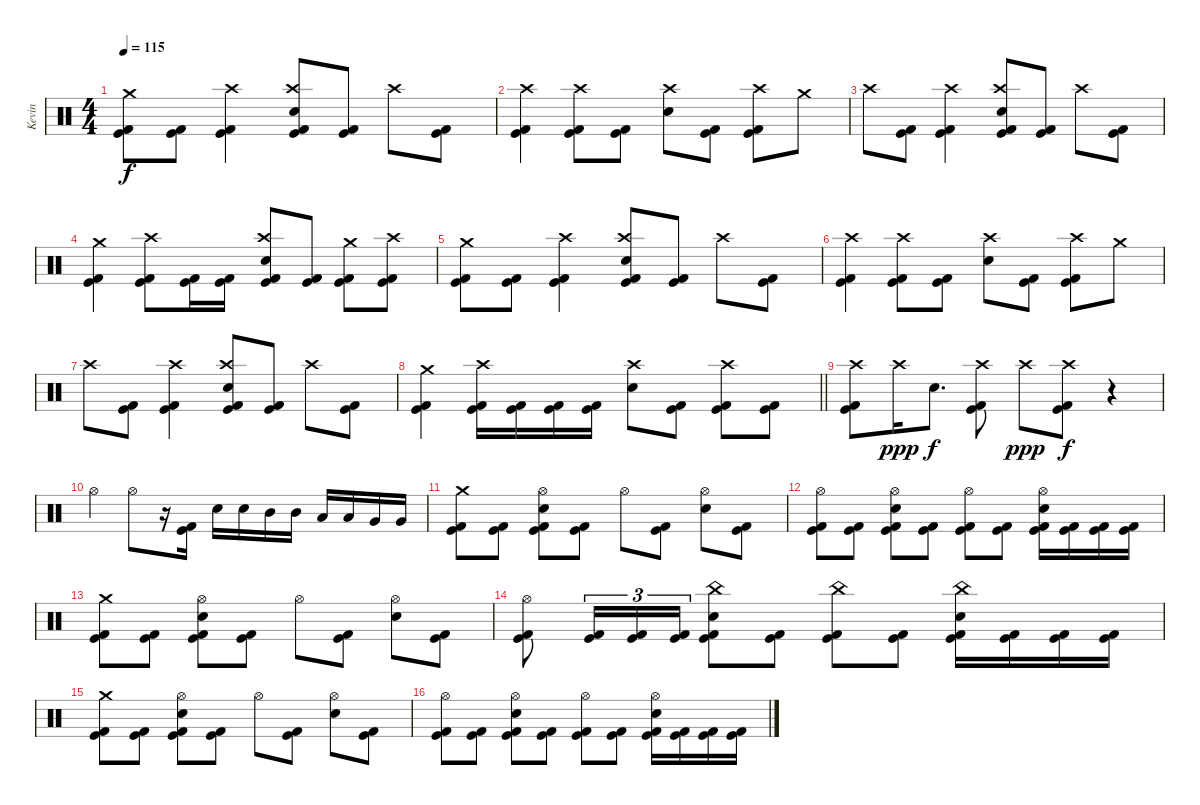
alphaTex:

\track ("Kevin" "Kevin") {instrument percussion}
\staff {score}
\articulation defaults
\ts (4 4)
\tempo 115
\clef neutral
\ks c
("Crash medium (hit)" "Kick (hit)" "Kick (hit) 2").8{dy f} ("Kick (hit)" "Kick (hit) 2").8 ("Crash high (hit)" "Kick (hit)" "Kick (hit) 2").4 ("Crash high (hit)" "Electric Snare (hit)" "Kick (hit)" "Kick (hit) 2").8 ("Kick (hit)" "Kick (hit) 2").8 "Crash high (hit)".8 ("Kick (hit)" "Kick (hit) 2").8 |
("Crash high (hit)" "Kick (hit)" "Kick (hit) 2").4 ("Crash high (hit)" "Kick (hit)" "Kick (hit) 2").8 ("Kick (hit)" "Kick (hit) 2").8 ("Crash high (hit)" "Electric Snare (hit)").8 ("Kick (hit)" "Kick (hit) 2").8 ("Crash high (hit)" "Kick (hit)" "Kick (hit) 2").8 "Crash medium (hit)".8 |
"Crash high (hit)".8 ("Kick (hit)" "Kick (hit) 2").8 ("Crash high (hit)" "Kick (hit)" "Kick (hit) 2").4 ("Crash high (hit)" "Electric Snare (hit)" "Kick (hit)" "Kick (hit) 2").8 ("Kick (hit)" "Kick (hit) 2").8 "Crash high (hit)".8 ("Kick (hit)" "Kick (hit) 2").8 |
("Crash medium (hit)" "Kick (hit)" "Kick (hit) 2").4 ("Crash high (hit)" "Kick (hit)" "Kick (hit) 2").8 ("Kick (hit)" "Kick (hit) 2").16 ("Kick (hit)" "Kick (hit) 2").16 ("Crash high (hit)" "Electric Snare (hit)" "Kick (hit)" "Kick (hit) 2").8 ("Kick (hit)" "Kick (hit) 2").8 ("Crash medium (hit)" "Kick (hit)" "Kick (hit) 2").8 ("Crash high (hit)" "Kick (hit)" "Kick (hit) 2").8 |
("Crash medium (hit)" "Kick (hit)" "Kick (hit) 2").8 ("Kick (hit)" "Kick (hit) 2").8 ("Crash high (hit)" "Kick (hit)" "Kick (hit) 2").4 ("Crash high (hit)" "Electric Snare (hit)" "Kick (hit)" "Kick (hit) 2").8 ("Kick (hit)" "Kick (hit) 2").8 "Crash high (hit)".8 ("Kick (hit)" "Kick (hit) 2").8 |
("Crash high (hit)" "Kick (hit)" "Kick (hit) 2").4 ("Crash high (hit)" "Kick (hit)" "Kick (hit) 2").8 ("Kick (hit)" "Kick (hit) 2").8 ("Crash high (hit)" "Electric Snare (hit)").8 ("Kick (hit)" "Kick (hit) 2").8 ("Crash high (hit)" "Kick (hit)" "Kick (hit) 2").8 "Crash medium (hit)".8 |
"Crash high (hit)".8 ("Kick (hit)" "Kick (hit) 2").8 ("Crash high (hit)" "Kick (hit)" "Kick (hit) 2").4 ("Crash high (hit)" "Electric Snare (hit)" "Kick (hit)" "Kick (hit) 2").8 ("Kick (hit)" "Kick (hit) 2").8 "Crash high (hit)".8 ("Kick (hit)" "Kick (hit) 2").8 |
\barLineRight lightlight
("Crash medium (hit)" "Kick (hit)" "Kick (hit) 2").4 ("Crash high (hit)" "Kick (hit)" "Kick (hit) 2").16 ("Kick (hit)" "Kick (hit) 2").16 ("Kick (hit)" "Kick (hit) 2").16 ("Kick (hit)" "Kick (hit) 2").16 ("Crash high (hit)" "Electric Snare (hit)").8 ("Kick (hit)" "Kick (hit) 2").8 ("Crash high (hit)" "Kick (hit)" "Kick (hit) 2").8 ("Kick (hit)" "Kick (hit) 2").8 |
\section ("" "")
("Crash high (hit)" "Kick (hit)" "Kick (hit) 2").8 "Crash high (hit)".16{dy ppp} "Electric Snare (hit)".8{d dy f} ("Crash high (hit)" "Kick (hit)" "Kick (hit) 2").8 "Crash high (hit)".8{dy ppp} ("Crash high (hit)" "Kick (hit)" "Kick (hit) 2").8{dy f} r.4 |
"Hi-Hat (open)".4 "Hi-Hat (open)".8 r.16 ("Kick (hit)" "Kick (hit) 2").16 "Electric Snare (hit)".16 "Electric Snare (hit)".16 "Mid Tom (hit)".16 "Mid Tom (hit)".16 "Low Tom (hit)".16 "Low Tom (hit)".16 "Very Low Tom (hit)".16 "Very Low Tom (hit)".16 |
("Crash medium (hit)" "Kick (hit)" "Kick (hit) 2").8 ("Kick (hit)" "Kick (hit) 2").8 ("Hi-Hat (open)" "Electric Snare (hit)" "Kick (hit)" "Kick (hit) 2").8 ("Kick (hit)" "Kick (hit) 2").8 "Hi-Hat (open)".8 ("Kick (hit)" "Kick (hit) 2").8 ("Hi-Hat (open)" "Electric Snare (hit)").8 ("Kick (hit)" "Kick (hit) 2").8 |
("Hi-Hat (open)" "Kick (hit)" "Kick (hit) 2").8 ("Kick (hit)" "Kick (hit) 2").8 ("Hi-Hat (open)" "Electric Snare (hit)" "Kick (hit)" "Kick (hit) 2").8 ("Kick (hit)" "Kick (hit) 2").8 ("Hi-Hat (open)" "Kick (hit)" "Kick (hit) 2").8 ("Kick (hit)" "Kick (hit) 2").8 ("Hi-Hat (open)" "Electric Snare (hit)" "Kick (hit)" "Kick (hit) 2").16 ("Kick (hit)" "Kick (hit) 2").16 ("Kick (hit)" "Kick (hit) 2").16 ("Kick (hit)" "Kick (hit) 2").16 |
("Crash medium (hit)" "Kick (hit)" "Kick (hit) 2").8 ("Kick (hit)" "Kick (hit) 2").8 ("Hi-Hat (open)" "Electric Snare (hit)" "Kick (hit)" "Kick (hit) 2").8 ("Kick (hit)" "Kick (hit) 2").8 "Hi-Hat (open)".8 ("Kick (hit)" "Kick (hit) 2").8 ("Hi-Hat (open)" "Electric Snare (hit)").8 ("Kick (hit)" "Kick (hit) 2").8 |
("Hi-Hat (open)" "Kick (hit)" "Kick (hit) 2").8 ("Kick (hit)" "Kick (hit) 2").16{tu (3 2)} ("Kick (hit)" "Kick (hit) 2").16{tu (3 2)} ("Kick (hit)" "Kick (hit) 2").16{tu (3 2)} ("China (hit)" "Electric Snare (hit)" "Kick (hit)" "Kick (hit) 2").8 ("Kick (hit)" "Kick (hit) 2").8 ("China (hit)" "Kick (hit)" "Kick (hit) 2").8 ("Kick (hit)" "Kick (hit) 2").8 ("China (hit)" "Electric Snare (hit)" "Kick (hit)" "Kick (hit) 2").16 ("Kick (hit)" "Kick (hit) 2").16 ("Kick (hit)" "Kick (hit) 2").16 ("Kick (hit)" "Kick (hit) 2").16 |
("Crash medium (hit)" "Kick (hit)" "Kick (hit) 2").8 ("Kick (hit)" "Kick (hit) 2").8 ("Hi-Hat (open)" "Electric Snare (hit)" "Kick (hit)" "Kick (hit) 2").8 ("Kick (hit)" "Kick (hit) 2").8 "Hi-Hat (open)".8 ("Kick (hit)" "Kick (hit) 2").8 ("Hi-Hat (open)" "Electric Snare (hit)").8 ("Kick (hit)" "Kick (hit) 2").8 |
("Hi-Hat (open)" "Kick (hit)" "Kick (hit) 2").8 ("Kick (hit)" "Kick (hit) 2").8 ("Hi-Hat (open)" "Electric Snare (hit)" "Kick (hit)" "Kick (hit) 2").8 ("Kick (hit)" "Kick (hit) 2").8 ("Hi-Hat (open)" "Kick (hit)" "Kick (hit) 2").8 ("Kick (hit)" "Kick (hit) 2").8 ("Hi-Hat (open)" "Electric Snare (hit)" "Kick (hit)" "Kick (hit) 2").16 ("Kick (hit)" "Kick (hit) 2").16 ("Kick (hit)" "Kick (hit) 2").16 ("Kick (hit)" "Kick (hit) 2").16
